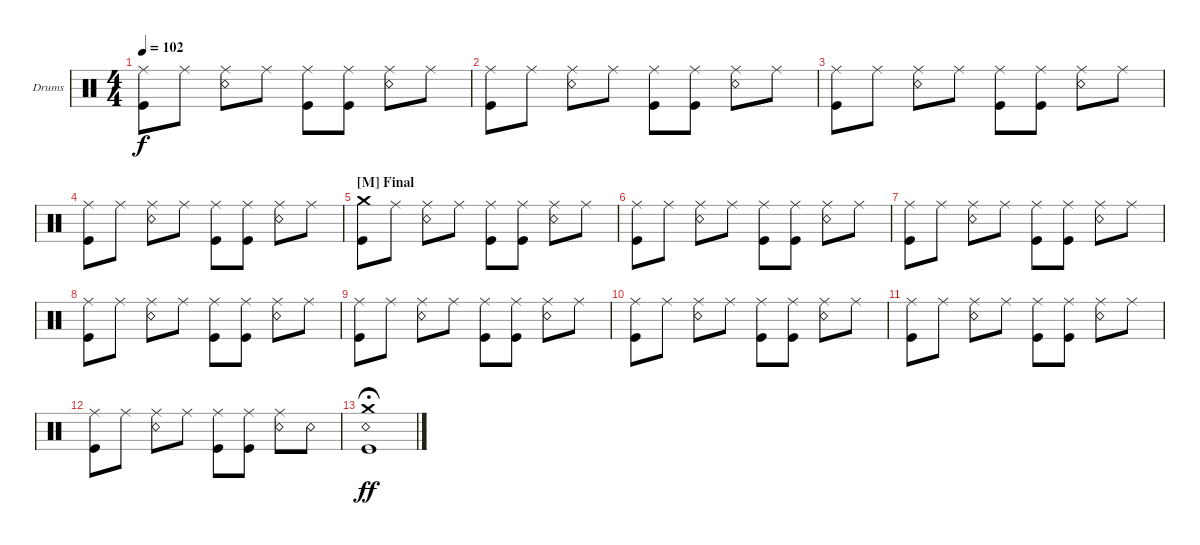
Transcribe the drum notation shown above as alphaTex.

\defaultSystemsLayout 4
\bracketExtendMode groupsimilarinstruments
\firstSystemTrackNameOrientation horizontal
\otherSystemsTrackNameOrientation horizontal
\track ("Drums" "Drums") {instrument percussion}
\staff {score}
\articulation defaults
\ts (4 4)
\tempo 102
\clef neutral
\ks c
("Ride (middle)" "Kick (hit)").8{dy f} "Ride (middle)".8 ("Ride (middle)" "Snare (rim shot)").8 "Ride (middle)".8 ("Ride (middle)" "Kick (hit)").8 ("Ride (middle)" "Kick (hit)").8 ("Ride (middle)" "Snare (rim shot)").8 "Ride (middle)".8 |
("Ride (middle)" "Kick (hit)").8 "Ride (middle)".8 ("Ride (middle)" "Snare (rim shot)").8 "Ride (middle)".8 ("Ride (middle)" "Kick (hit)").8 ("Ride (middle)" "Kick (hit)").8 ("Ride (middle)" "Snare (rim shot)").8 "Ride (middle)".8 |
("Ride (middle)" "Kick (hit)").8 "Ride (middle)".8 ("Ride (middle)" "Snare (rim shot)").8 "Ride (middle)".8 ("Ride (middle)" "Kick (hit)").8 ("Ride (middle)" "Kick (hit)").8 ("Ride (middle)" "Snare (rim shot)").8 "Ride (middle)".8 |
("Ride (middle)" "Kick (hit)").8 "Ride (middle)".8 ("Ride (middle)" "Snare (rim shot)").8 "Ride (middle)".8 ("Ride (middle)" "Kick (hit)").8 ("Ride (middle)" "Kick (hit)").8 ("Ride (middle)" "Snare (rim shot)").8 "Ride (middle)".8 |
\section ("M" "Final")
("Kick (hit)" "Crash medium (hit)").8 "Ride (middle)".8 ("Snare (rim shot)" "Ride (middle)").8 "Ride (middle)".8 ("Kick (hit)" "Ride (middle)").8 ("Kick (hit)" "Ride (middle)").8 ("Snare (rim shot)" "Ride (middle)").8 "Ride (middle)".8 |
("Ride (middle)" "Kick (hit)").8 "Ride (middle)".8 ("Ride (middle)" "Snare (rim shot)").8 "Ride (middle)".8 ("Ride (middle)" "Kick (hit)").8 ("Ride (middle)" "Kick (hit)").8 ("Ride (middle)" "Snare (rim shot)").8 "Ride (middle)".8 |
("Ride (middle)" "Kick (hit)").8 "Ride (middle)".8 ("Ride (middle)" "Snare (rim shot)").8 "Ride (middle)".8 ("Ride (middle)" "Kick (hit)").8 ("Ride (middle)" "Kick (hit)").8 ("Ride (middle)" "Snare (rim shot)").8 "Ride (middle)".8 |
("Ride (middle)" "Kick (hit)").8 "Ride (middle)".8 ("Ride (middle)" "Snare (rim shot)").8 "Ride (middle)".8 ("Ride (middle)" "Kick (hit)").8 ("Ride (middle)" "Kick (hit)").8 ("Ride (middle)" "Snare (rim shot)").8 "Ride (middle)".8 |
("Ride (middle)" "Kick (hit)").8 "Ride (middle)".8 ("Ride (middle)" "Snare (rim shot)").8 "Ride (middle)".8 ("Ride (middle)" "Kick (hit)").8 ("Ride (middle)" "Kick (hit)").8 ("Ride (middle)" "Snare (rim shot)").8 "Ride (middle)".8 |
("Ride (middle)" "Kick (hit)").8 "Ride (middle)".8 ("Ride (middle)" "Snare (rim shot)").8 "Ride (middle)".8 ("Ride (middle)" "Kick (hit)").8 ("Ride (middle)" "Kick (hit)").8 ("Ride (middle)" "Snare (rim shot)").8 "Ride (middle)".8 |
("Ride (middle)" "Kick (hit)").8 "Ride (middle)".8 ("Ride (middle)" "Snare (rim shot)").8 "Ride (middle)".8 ("Ride (middle)" "Kick (hit)").8 ("Ride (middle)" "Kick (hit)").8 ("Ride (middle)" "Snare (rim shot)").8 "Ride (middle)".8 |
("Ride (middle)" "Kick (hit)").8 "Ride (middle)".8 ("Ride (middle)" "Snare (rim shot)").8 "Ride (middle)".8 ("Ride (middle)" "Kick (hit)").8 ("Ride (middle)" "Kick (hit)").8 ("Ride (middle)" "Snare (rim shot)").8 "Snare (rim shot)".8 |
("Kick (hit)" "Crash medium (hit)" "Snare (rim shot)").1{dy ff fermata (medium 1)}
